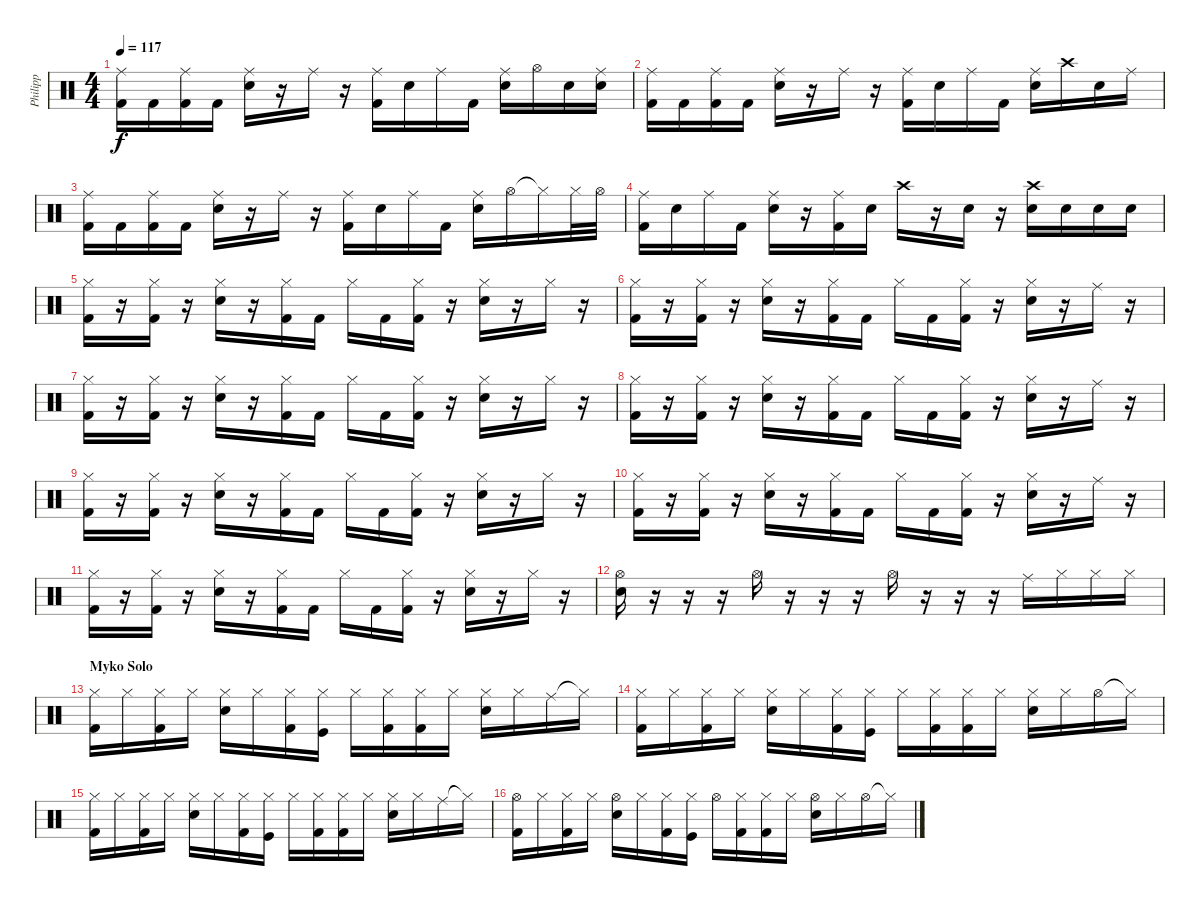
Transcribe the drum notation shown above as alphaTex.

\track ("Philipp" "Philipp") {instrument percussion}
\staff {score}
\articulation defaults
\ts (4 4)
\tempo 117
\clef neutral
\ks c
("Ride (middle)" "Kick (hit) 2").16{dy f} "Kick (hit) 2".16 ("Ride (middle)" "Kick (hit) 2").16 "Kick (hit) 2".16 ("Ride (middle)" "Electric Snare (hit)").16 r.16 "Ride (middle)".16 r.16 ("Ride (middle)" "Kick (hit) 2").16 "Electric Snare (hit)".16 "Ride (middle)".16 "Kick (hit) 2".16 ("Ride (middle)" "Electric Snare (hit)").16 "Hi-Hat (open)".16 "Electric Snare (hit)".16 ("Ride (middle)" "Electric Snare (hit)").16 |
("Ride (middle)" "Kick (hit) 2").16 "Kick (hit) 2".16 ("Ride (middle)" "Kick (hit) 2").16 "Kick (hit) 2".16 ("Ride (middle)" "Electric Snare (hit)").16 r.16 "Ride (middle)".16 r.16 ("Ride (middle)" "Kick (hit) 2").16 "Electric Snare (hit)".16 "Ride (middle)".16 "Kick (hit) 2".16 ("Ride (middle)" "Electric Snare (hit)").16 "Crash high (hit)".16 "Electric Snare (hit)".16 "Ride (middle)".16 |
("Ride (middle)" "Kick (hit) 2").16 "Kick (hit) 2".16 ("Ride (middle)" "Kick (hit) 2").16 "Kick (hit) 2".16 ("Ride (middle)" "Electric Snare (hit)").16 r.16 "Ride (middle)".16 r.16 ("Ride (middle)" "Kick (hit) 2").16 "Electric Snare (hit)".16 "Ride (middle)".16 "Kick (hit) 2".16 ("Ride (middle)" "Electric Snare (hit)").16 "Hi-Hat (open)".16 "Hi-Hat (closed)"{t}.16 "Hi-Hat (closed)".32 "Hi-Hat (open)".32 |
("Ride (middle)" "Kick (hit) 2").16 "Electric Snare (hit)".16 "Ride (middle)".16 "Kick (hit) 2".16 ("Ride (middle)" "Electric Snare (hit)").16 r.16 ("Ride (middle)" "Kick (hit) 2").16 "Electric Snare (hit)".16 "Crash high (hit)".16 r.16 "Electric Snare (hit)".16 r.16 ("Crash high (hit)" "Electric Snare (hit)").16 "Electric Snare (hit)".16 "Electric Snare (hit)".16 "Electric Snare (hit)".16 |
("Hi-Hat (closed)" "Kick (hit) 2").16 r.16 ("Hi-Hat (closed)" "Kick (hit) 2").16 r.16 ("Hi-Hat (closed)" "Electric Snare (hit)").16 r.16 ("Hi-Hat (closed)" "Kick (hit) 2").16 "Kick (hit) 2".16 "Hi-Hat (closed)".16 "Kick (hit) 2".16 ("Hi-Hat (closed)" "Kick (hit) 2").16 r.16 ("Hi-Hat (closed)" "Electric Snare (hit)").16 r.16 "Hi-Hat (closed)".16 r.16 |
("Hi-Hat (closed)" "Kick (hit) 2").16 r.16 ("Hi-Hat (closed)" "Kick (hit) 2").16 r.16 ("Hi-Hat (closed)" "Electric Snare (hit)").16 r.16 ("Hi-Hat (closed)" "Kick (hit) 2").16 "Kick (hit) 2".16 "Hi-Hat (closed)".16 "Kick (hit) 2".16 ("Hi-Hat (closed)" "Kick (hit) 2").16 r.16 ("Hi-Hat (closed)" "Electric Snare (hit)").16 r.16 "Ride (middle)".16 r.16 |
("Hi-Hat (closed)" "Kick (hit) 2").16 r.16 ("Hi-Hat (closed)" "Kick (hit) 2").16 r.16 ("Hi-Hat (closed)" "Electric Snare (hit)").16 r.16 ("Hi-Hat (closed)" "Kick (hit) 2").16 "Kick (hit) 2".16 "Hi-Hat (closed)".16 "Kick (hit) 2".16 ("Hi-Hat (closed)" "Kick (hit) 2").16 r.16 ("Hi-Hat (closed)" "Electric Snare (hit)").16 r.16 "Hi-Hat (closed)".16 r.16 |
("Hi-Hat (closed)" "Kick (hit) 2").16 r.16 ("Hi-Hat (closed)" "Kick (hit) 2").16 r.16 ("Hi-Hat (closed)" "Electric Snare (hit)").16 r.16 ("Hi-Hat (closed)" "Kick (hit) 2").16 "Kick (hit) 2".16 "Hi-Hat (closed)".16 "Kick (hit) 2".16 ("Hi-Hat (closed)" "Kick (hit) 2").16 r.16 ("Hi-Hat (closed)" "Electric Snare (hit)").16 r.16 "Ride (middle)".16 r.16 |
("Hi-Hat (closed)" "Kick (hit) 2").16 r.16 ("Hi-Hat (closed)" "Kick (hit) 2").16 r.16 ("Hi-Hat (closed)" "Electric Snare (hit)").16 r.16 ("Hi-Hat (closed)" "Kick (hit) 2").16 "Kick (hit) 2".16 "Hi-Hat (closed)".16 "Kick (hit) 2".16 ("Hi-Hat (closed)" "Kick (hit) 2").16 r.16 ("Hi-Hat (closed)" "Electric Snare (hit)").16 r.16 "Hi-Hat (closed)".16 r.16 |
("Hi-Hat (closed)" "Kick (hit) 2").16 r.16 ("Hi-Hat (closed)" "Kick (hit) 2").16 r.16 ("Hi-Hat (closed)" "Electric Snare (hit)").16 r.16 ("Hi-Hat (closed)" "Kick (hit) 2").16 "Kick (hit) 2".16 "Hi-Hat (closed)".16 "Kick (hit) 2".16 ("Hi-Hat (closed)" "Kick (hit) 2").16 r.16 ("Hi-Hat (closed)" "Electric Snare (hit)").16 r.16 "Ride (middle)".16 r.16 |
("Hi-Hat (closed)" "Kick (hit) 2").16 r.16 ("Hi-Hat (closed)" "Kick (hit) 2").16 r.16 ("Hi-Hat (closed)" "Electric Snare (hit)").16 r.16 ("Hi-Hat (closed)" "Kick (hit) 2").16 "Kick (hit) 2".16 "Hi-Hat (closed)".16 "Kick (hit) 2".16 ("Hi-Hat (closed)" "Kick (hit) 2").16 r.16 ("Hi-Hat (closed)" "Electric Snare (hit)").16 r.16 "Hi-Hat (closed)".16 r.16 |
("Hi-Hat (open)" "Electric Snare (hit)").16 r.16 r.16 r.16 "Hi-Hat (open)".16 r.16 r.16 r.16 "Hi-Hat (open)".16 r.16 r.16 r.16 "Ride (middle)".16 "Hi-Hat (closed)".16 "Hi-Hat (closed)".16 "Hi-Hat (closed)".16 |
\section ("" "Myko Solo")
("Hi-Hat (closed)" "Kick (hit) 2").16 "Hi-Hat (closed)".16 ("Hi-Hat (closed)" "Kick (hit) 2").16 "Hi-Hat (closed)".16 ("Hi-Hat (closed)" "Electric Snare (hit)").16 "Hi-Hat (closed)".16 ("Hi-Hat (closed)" "Kick (hit) 2").16 ("Hi-Hat (closed)" "Kick (hit)").16 "Hi-Hat (closed)".16 ("Hi-Hat (closed)" "Kick (hit) 2").16 ("Hi-Hat (closed)" "Kick (hit) 2").16 "Hi-Hat (closed)".16 ("Hi-Hat (closed)" "Electric Snare (hit)").16 "Hi-Hat (closed)".16 "Ride (middle)".16 "Hi-Hat (closed)"{t}.16 |
("Hi-Hat (closed)" "Kick (hit) 2").16 "Hi-Hat (closed)".16 ("Hi-Hat (closed)" "Kick (hit) 2").16 "Hi-Hat (closed)".16 ("Hi-Hat (closed)" "Electric Snare (hit)").16 "Hi-Hat (closed)".16 ("Hi-Hat (closed)" "Kick (hit) 2").16 ("Hi-Hat (closed)" "Kick (hit)").16 "Hi-Hat (closed)".16 ("Hi-Hat (closed)" "Kick (hit) 2").16 ("Hi-Hat (closed)" "Kick (hit) 2").16 "Hi-Hat (closed)".16 ("Hi-Hat (closed)" "Electric Snare (hit)").16 "Hi-Hat (closed)".16 "Hi-Hat (open)".16 "Hi-Hat (closed)"{t}.16 |
("Hi-Hat (closed)" "Kick (hit) 2").16 "Hi-Hat (closed)".16 ("Hi-Hat (closed)" "Kick (hit) 2").16 "Hi-Hat (closed)".16 ("Hi-Hat (closed)" "Electric Snare (hit)").16 "Hi-Hat (closed)".16 ("Hi-Hat (closed)" "Kick (hit) 2").16 ("Hi-Hat (closed)" "Kick (hit)").16 "Hi-Hat (closed)".16 ("Hi-Hat (closed)" "Kick (hit) 2").16 ("Hi-Hat (closed)" "Kick (hit) 2").16 "Hi-Hat (closed)".16 ("Hi-Hat (closed)" "Electric Snare (hit)").16 "Hi-Hat (closed)".16 "Ride (middle)".16 "Hi-Hat (closed)"{t}.16 |
("Hi-Hat (open)" "Kick (hit) 2").16 "Hi-Hat (closed)".16 ("Hi-Hat (closed)" "Kick (hit) 2").16 "Hi-Hat (closed)".16 ("Hi-Hat (open)" "Electric Snare (hit)").16 "Hi-Hat (closed)".16 ("Hi-Hat (closed)" "Kick (hit) 2").16 ("Hi-Hat (closed)" "Kick (hit)").16 "Hi-Hat (open)".16 ("Hi-Hat (closed)" "Kick (hit) 2").16 ("Hi-Hat (closed)" "Kick (hit) 2").16 "Hi-Hat (closed)".16 ("Hi-Hat (open)" "Electric Snare (hit)").16 "Hi-Hat (closed)".16 "Hi-Hat (open)".16 "Hi-Hat (closed)"{t}.16
